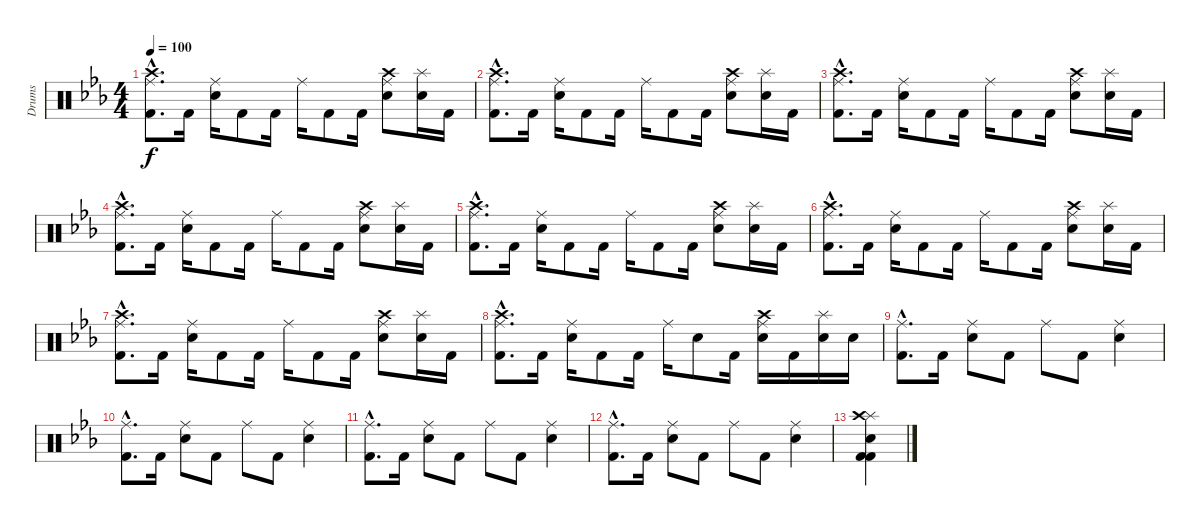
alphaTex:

\track ("Drums" "Drums") {instrument percussion}
\staff {score}
\articulation defaults
\ts (4 4)
\tempo 100
\clef neutral
\ks cminor
("Ride (middle)"{hac} "Crash high (hit)"{hac} "Kick (hit) 2"{hac}).8{d dy f} "Kick (hit) 2".16 ("Ride (middle)" "Electric Snare (hit)").16 "Kick (hit) 2".8 "Kick (hit) 2".16 "Ride (middle)".16 "Kick (hit) 2".8 "Kick (hit) 2".16 ("Ride (middle)" "Crash high (hit)" "Electric Snare (hit)").8 ("Splash (hit)" "Electric Snare (hit)").16 "Kick (hit) 2".16 |
("Ride (middle)"{hac} "Crash high (hit)"{hac} "Kick (hit) 2"{hac}).8{d} "Kick (hit) 2".16 ("Ride (middle)" "Electric Snare (hit)").16 "Kick (hit) 2".8 "Kick (hit) 2".16 "Ride (middle)".16 "Kick (hit) 2".8 "Kick (hit) 2".16 ("Ride (middle)" "Crash high (hit)" "Electric Snare (hit)").8 ("Splash (hit)" "Electric Snare (hit)").16 "Kick (hit) 2".16 |
("Ride (middle)"{hac} "Crash high (hit)"{hac} "Kick (hit) 2"{hac}).8{d} "Kick (hit) 2".16 ("Ride (middle)" "Electric Snare (hit)").16 "Kick (hit) 2".8 "Kick (hit) 2".16 "Ride (middle)".16 "Kick (hit) 2".8 "Kick (hit) 2".16 ("Ride (middle)" "Crash high (hit)" "Electric Snare (hit)").8 ("Splash (hit)" "Electric Snare (hit)").16 "Kick (hit) 2".16 |
("Ride (middle)"{hac} "Crash high (hit)"{hac} "Kick (hit) 2"{hac}).8{d} "Kick (hit) 2".16 ("Ride (middle)" "Electric Snare (hit)").16 "Kick (hit) 2".8 "Kick (hit) 2".16 "Ride (middle)".16 "Kick (hit) 2".8 "Kick (hit) 2".16 ("Ride (middle)" "Crash high (hit)" "Electric Snare (hit)").8 ("Splash (hit)" "Electric Snare (hit)").16 "Kick (hit) 2".16 |
("Ride (middle)"{hac} "Crash high (hit)"{hac} "Kick (hit) 2"{hac}).8{d} "Kick (hit) 2".16 ("Ride (middle)" "Electric Snare (hit)").16 "Kick (hit) 2".8 "Kick (hit) 2".16 "Ride (middle)".16 "Kick (hit) 2".8 "Kick (hit) 2".16 ("Ride (middle)" "Crash high (hit)" "Electric Snare (hit)").8 ("Splash (hit)" "Electric Snare (hit)").16 "Kick (hit) 2".16 |
("Ride (middle)"{hac} "Crash high (hit)"{hac} "Kick (hit) 2"{hac}).8{d} "Kick (hit) 2".16 ("Ride (middle)" "Electric Snare (hit)").16 "Kick (hit) 2".8 "Kick (hit) 2".16 "Ride (middle)".16 "Kick (hit) 2".8 "Kick (hit) 2".16 ("Ride (middle)" "Crash high (hit)" "Electric Snare (hit)").8 ("Splash (hit)" "Electric Snare (hit)").16 "Kick (hit) 2".16 |
("Ride (middle)"{hac} "Crash high (hit)"{hac} "Kick (hit) 2"{hac}).8{d} "Kick (hit) 2".16 ("Ride (middle)" "Electric Snare (hit)").16 "Kick (hit) 2".8 "Kick (hit) 2".16 "Ride (middle)".16 "Kick (hit) 2".8 "Kick (hit) 2".16 ("Ride (middle)" "Crash high (hit)" "Electric Snare (hit)").8 ("Splash (hit)" "Electric Snare (hit)").16 "Kick (hit) 2".16 |
("Ride (middle)"{hac} "Crash high (hit)"{hac} "Kick (hit) 2"{hac}).8{d} "Kick (hit) 2".16 ("Ride (middle)" "Electric Snare (hit)").16 "Kick (hit) 2".8 "Kick (hit) 2".16 "Ride (middle)".16 "Electric Snare (hit)".8 "Kick (hit) 2".16 ("Ride (middle)" "Crash high (hit)" "Electric Snare (hit)").16 "Kick (hit) 2".16 ("Splash (hit)" "Electric Snare (hit)").16 "Electric Snare (hit)".16 |
("Ride (middle)"{hac} "Kick (hit) 2"{hac}).8{d} "Kick (hit) 2".16 ("Ride (middle)" "Electric Snare (hit)").8 "Kick (hit) 2".8 "Ride (middle)".8 "Kick (hit) 2".8 ("Ride (middle)" "Electric Snare (hit)").4 |
("Ride (middle)"{hac} "Kick (hit) 2"{hac}).8{d} "Kick (hit) 2".16 ("Ride (middle)" "Electric Snare (hit)").8 "Kick (hit) 2".8 "Ride (middle)".8 "Kick (hit) 2".8 ("Ride (middle)" "Electric Snare (hit)").4 |
("Ride (middle)"{hac} "Kick (hit) 2"{hac}).8{d} "Kick (hit) 2".16 ("Ride (middle)" "Electric Snare (hit)").8 "Kick (hit) 2".8 "Ride (middle)".8 "Kick (hit) 2".8 ("Ride (middle)" "Electric Snare (hit)").4 |
("Ride (middle)"{hac} "Kick (hit) 2"{hac}).8{d} "Kick (hit) 2".16 ("Ride (middle)" "Electric Snare (hit)").8 "Kick (hit) 2".8 "Ride (middle)".8 "Kick (hit) 2".8 ("Ride (middle)" "Electric Snare (hit)").4 |
("Splash (hit)" "Crash high (hit)" "Electric Snare (hit)" "Kick (hit) 2" "Kick (hit) 2").4
